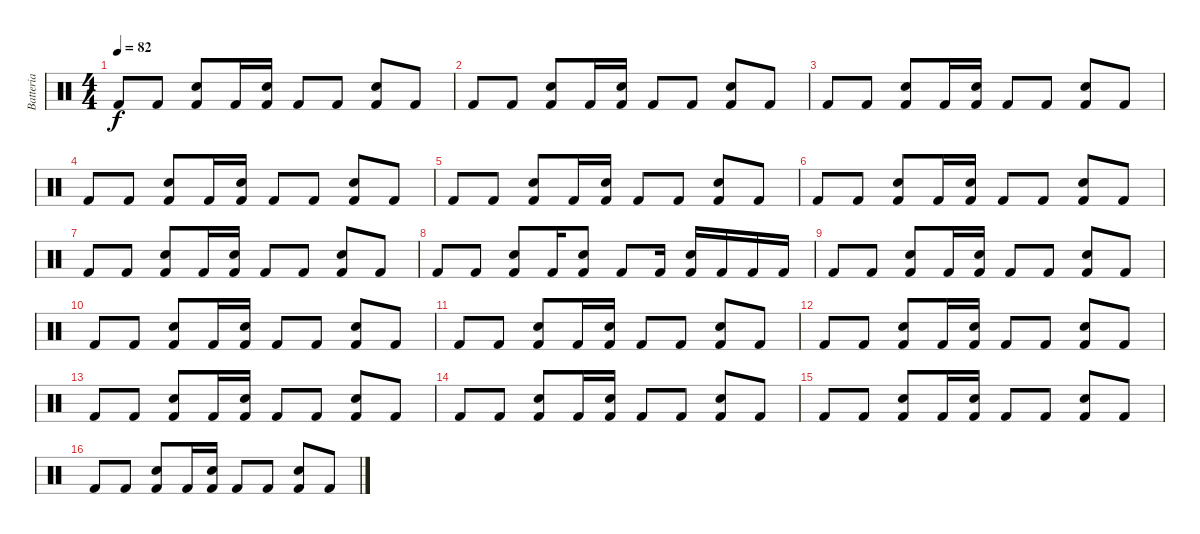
\track ("Batteria" "Batteria") {instrument percussion}
\staff {score}
\articulation defaults
\ts (4 4)
\tempo 82
\clef neutral
\ks c "Kick (hit) 2".8{dy f} "Kick (hit) 2".8
("Snare (hit) 2" "Kick (hit) 2").8 "Kick (hit) 2".16 ("Snare (hit) 2" "Kick (hit) 2").16 "Kick (hit) 2".8 "Kick (hit) 2".8 ("Snare (hit) 2" "Kick (hit) 2").8 "Kick (hit) 2".8 |
"Kick (hit) 2".8 "Kick (hit) 2".8 ("Snare (hit) 2" "Kick (hit) 2").8 "Kick (hit) 2".16 ("Snare (hit) 2" "Kick (hit) 2").16 "Kick (hit) 2".8 "Kick (hit) 2".8 ("Snare (hit) 2" "Kick (hit) 2").8 "Kick (hit) 2".8 |
"Kick (hit) 2".8 "Kick (hit) 2".8 ("Snare (hit) 2" "Kick (hit) 2").8 "Kick (hit) 2".16 ("Snare (hit) 2" "Kick (hit) 2").16 "Kick (hit) 2".8 "Kick (hit) 2".8 ("Snare (hit) 2" "Kick (hit) 2").8 "Kick (hit) 2".8 |
"Kick (hit) 2".8 "Kick (hit) 2".8 ("Snare (hit) 2" "Kick (hit) 2").8 "Kick (hit) 2".16 ("Snare (hit) 2" "Kick (hit) 2").16 "Kick (hit) 2".8 "Kick (hit) 2".8 ("Snare (hit) 2" "Kick (hit) 2").8 "Kick (hit) 2".8 |
"Kick (hit) 2".8 "Kick (hit) 2".8 ("Snare (hit) 2" "Kick (hit) 2").8 "Kick (hit) 2".16 ("Snare (hit) 2" "Kick (hit) 2").16 "Kick (hit) 2".8 "Kick (hit) 2".8 ("Snare (hit) 2" "Kick (hit) 2").8 "Kick (hit) 2".8 |
"Kick (hit) 2".8 "Kick (hit) 2".8 ("Snare (hit) 2" "Kick (hit) 2").8 "Kick (hit) 2".16 ("Snare (hit) 2" "Kick (hit) 2").16 "Kick (hit) 2".8 "Kick (hit) 2".8 ("Snare (hit) 2" "Kick (hit) 2").8 "Kick (hit) 2".8 |
"Kick (hit) 2".8 "Kick (hit) 2".8 ("Snare (hit) 2" "Kick (hit) 2").8 "Kick (hit) 2".16 ("Snare (hit) 2" "Kick (hit) 2").16 "Kick (hit) 2".8 "Kick (hit) 2".8 ("Snare (hit) 2" "Kick (hit) 2").8 "Kick (hit) 2".8 |
"Kick (hit) 2".8 "Kick (hit) 2".8 ("Snare (hit) 2" "Kick (hit) 2").8 "Kick (hit) 2".16 ("Snare (hit) 2" "Kick (hit) 2").8 "Kick (hit) 2".8 "Kick (hit) 2".16 ("Snare (hit) 2" "Kick (hit) 2").16 "Kick (hit) 2".16 "Kick (hit) 2".16 "Kick (hit) 2".16 |
"Kick (hit) 2".8 "Kick (hit) 2".8 ("Snare (hit) 2" "Kick (hit) 2").8 "Kick (hit) 2".16 ("Snare (hit) 2" "Kick (hit) 2").16 "Kick (hit) 2".8 "Kick (hit) 2".8 ("Snare (hit) 2" "Kick (hit) 2").8 "Kick (hit) 2".8 |
"Kick (hit) 2".8 "Kick (hit) 2".8 ("Snare (hit) 2" "Kick (hit) 2").8 "Kick (hit) 2".16 ("Snare (hit) 2" "Kick (hit) 2").16 "Kick (hit) 2".8 "Kick (hit) 2".8 ("Snare (hit) 2" "Kick (hit) 2").8 "Kick (hit) 2".8 |
"Kick (hit) 2".8 "Kick (hit) 2".8 ("Snare (hit) 2" "Kick (hit) 2").8 "Kick (hit) 2".16 ("Snare (hit) 2" "Kick (hit) 2").16 "Kick (hit) 2".8 "Kick (hit) 2".8 ("Snare (hit) 2" "Kick (hit) 2").8 "Kick (hit) 2".8 |
"Kick (hit) 2".8 "Kick (hit) 2".8 ("Snare (hit) 2" "Kick (hit) 2").8 "Kick (hit) 2".16 ("Snare (hit) 2" "Kick (hit) 2").16 "Kick (hit) 2".8 "Kick (hit) 2".8 ("Snare (hit) 2" "Kick (hit) 2").8 "Kick (hit) 2".8 |
"Kick (hit) 2".8 "Kick (hit) 2".8 ("Snare (hit) 2" "Kick (hit) 2").8 "Kick (hit) 2".16 ("Snare (hit) 2" "Kick (hit) 2").16 "Kick (hit) 2".8 "Kick (hit) 2".8 ("Snare (hit) 2" "Kick (hit) 2").8 "Kick (hit) 2".8 |
"Kick (hit) 2".8 "Kick (hit) 2".8 ("Snare (hit) 2" "Kick (hit) 2").8 "Kick (hit) 2".16 ("Snare (hit) 2" "Kick (hit) 2").16 "Kick (hit) 2".8 "Kick (hit) 2".8 ("Snare (hit) 2" "Kick (hit) 2").8 "Kick (hit) 2".8 |
"Kick (hit) 2".8 "Kick (hit) 2".8 ("Snare (hit) 2" "Kick (hit) 2").8 "Kick (hit) 2".16 ("Snare (hit) 2" "Kick (hit) 2").16 "Kick (hit) 2".8 "Kick (hit) 2".8 ("Snare (hit) 2" "Kick (hit) 2").8 "Kick (hit) 2".8 |
"Kick (hit) 2".8 "Kick (hit) 2".8 ("Snare (hit) 2" "Kick (hit) 2").8 "Kick (hit) 2".16 ("Snare (hit) 2" "Kick (hit) 2").16 "Kick (hit) 2".8 "Kick (hit) 2".8 ("Snare (hit) 2" "Kick (hit) 2").8 "Kick (hit) 2".8
